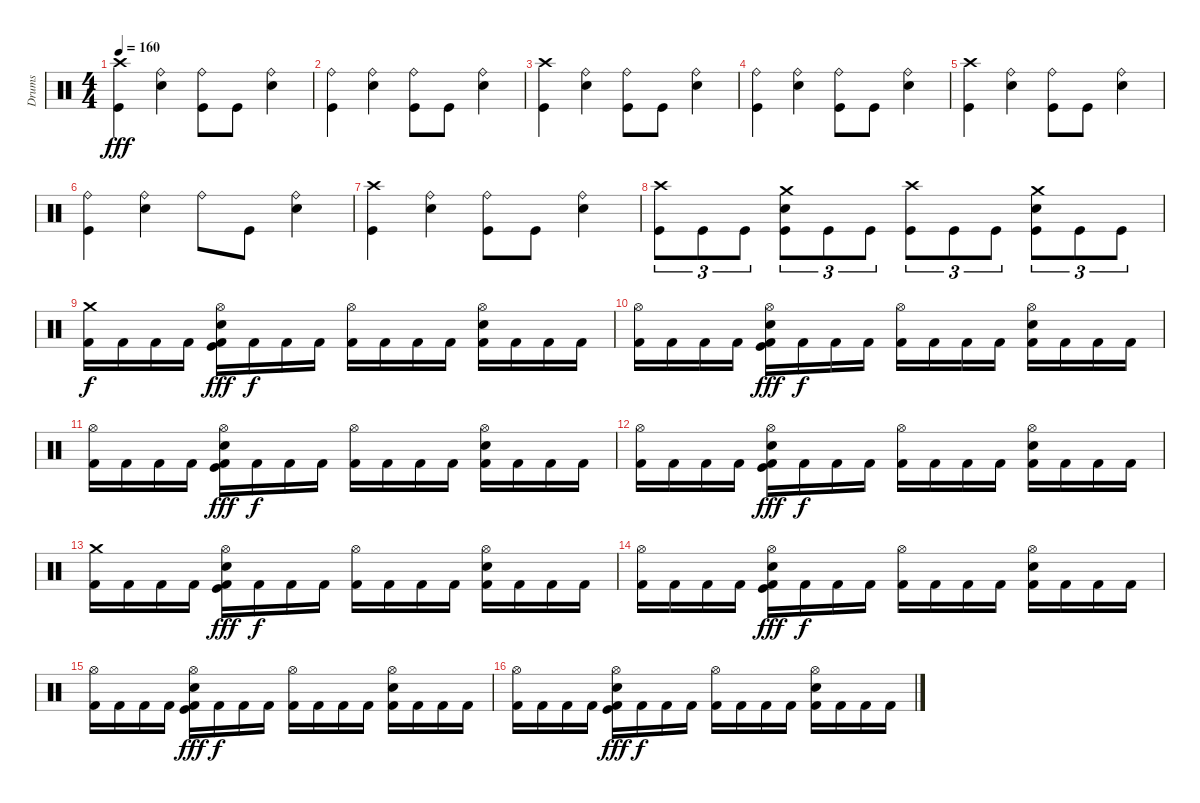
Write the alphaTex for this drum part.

\track ("Drums" "Drums") {instrument percussion}
\staff {score}
\articulation defaults
\ts (4 4)
\tempo 160
\clef neutral
\ks c
("Crash high (hit)" "Kick (hit)").4{dy fff} ("Ride (bell)" "Snare (hit) 2").4 ("Ride (bell)" "Kick (hit)").8 "Kick (hit)".8 ("Ride (bell)" "Snare (hit) 2").4 |
("Ride (bell)" "Kick (hit)").4 ("Ride (bell)" "Snare (hit) 2").4 ("Ride (bell)" "Kick (hit)").8 "Kick (hit)".8 ("Ride (bell)" "Snare (hit) 2").4 |
("Crash high (hit)" "Kick (hit)").4 ("Ride (bell)" "Snare (hit) 2").4 ("Ride (bell)" "Kick (hit)").8 "Kick (hit)".8 ("Ride (bell)" "Snare (hit) 2").4 |
("Ride (bell)" "Kick (hit)").4 ("Ride (bell)" "Snare (hit) 2").4 ("Ride (bell)" "Kick (hit)").8 "Kick (hit)".8 ("Ride (bell)" "Snare (hit) 2").4 |
("Crash high (hit)" "Kick (hit)").4 ("Ride (bell)" "Snare (hit) 2").4 ("Ride (bell)" "Kick (hit)").8 "Kick (hit)".8 ("Ride (bell)" "Snare (hit) 2").4 |
("Ride (bell)" "Kick (hit)").4 ("Ride (bell)" "Snare (hit) 2").4 "Ride (bell)".8 "Kick (hit)".8 ("Ride (bell)" "Snare (hit) 2").4 |
("Crash high (hit)" "Kick (hit)").4 ("Ride (bell)" "Snare (hit) 2").4 ("Ride (bell)" "Kick (hit)").8 "Kick (hit)".8 ("Ride (bell)" "Snare (hit) 2").4 |
("Crash high (hit)" "Kick (hit)").8{tu (3 2)} "Kick (hit)".8{tu (3 2)} "Kick (hit)".8{tu (3 2)} ("Crash medium (hit)" "Snare (hit) 2" "Kick (hit)").8{tu (3 2)} "Kick (hit)".8{tu (3 2)} "Kick (hit)".8{tu (3 2)} ("Crash high (hit)" "Kick (hit)").8{tu (3 2)} "Kick (hit)".8{tu (3 2)} "Kick (hit)".8{tu (3 2)} ("Crash medium (hit)" "Snare (hit) 2" "Kick (hit)").8{tu (3 2)} "Kick (hit)".8{tu (3 2)} "Kick (hit)".8{tu (3 2)} |
("Kick (hit) 2" "Crash medium (hit)").16{dy f} "Kick (hit) 2".16 "Kick (hit) 2".16 "Kick (hit) 2".16 ("Kick (hit) 2" "Snare (hit) 2" "Kick (hit)" "Hi-Hat (open)").16{dy fff} "Kick (hit) 2".16{dy f} "Kick (hit) 2".16 "Kick (hit) 2".16 ("Kick (hit) 2" "Hi-Hat (open)").16 "Kick (hit) 2".16 "Kick (hit) 2".16 "Kick (hit) 2".16 ("Kick (hit) 2" "Snare (hit) 2" "Hi-Hat (open)").16 "Kick (hit) 2".16 "Kick (hit) 2".16 "Kick (hit) 2".16 |
("Kick (hit) 2" "Hi-Hat (open)").16 "Kick (hit) 2".16 "Kick (hit) 2".16 "Kick (hit) 2".16 ("Kick (hit) 2" "Snare (hit) 2" "Kick (hit)" "Hi-Hat (open)").16{dy fff} "Kick (hit) 2".16{dy f} "Kick (hit) 2".16 "Kick (hit) 2".16 ("Kick (hit) 2" "Hi-Hat (open)").16 "Kick (hit) 2".16 "Kick (hit) 2".16 "Kick (hit) 2".16 ("Kick (hit) 2" "Snare (hit) 2" "Hi-Hat (open)").16 "Kick (hit) 2".16 "Kick (hit) 2".16 "Kick (hit) 2".16 |
("Kick (hit) 2" "Hi-Hat (open)").16 "Kick (hit) 2".16 "Kick (hit) 2".16 "Kick (hit) 2".16 ("Kick (hit) 2" "Snare (hit) 2" "Kick (hit)" "Hi-Hat (open)").16{dy fff} "Kick (hit) 2".16{dy f} "Kick (hit) 2".16 "Kick (hit) 2".16 ("Kick (hit) 2" "Hi-Hat (open)").16 "Kick (hit) 2".16 "Kick (hit) 2".16 "Kick (hit) 2".16 ("Kick (hit) 2" "Snare (hit) 2" "Hi-Hat (open)").16 "Kick (hit) 2".16 "Kick (hit) 2".16 "Kick (hit) 2".16 |
("Kick (hit) 2" "Hi-Hat (open)").16 "Kick (hit) 2".16 "Kick (hit) 2".16 "Kick (hit) 2".16 ("Kick (hit) 2" "Snare (hit) 2" "Kick (hit)" "Hi-Hat (open)").16{dy fff} "Kick (hit) 2".16{dy f} "Kick (hit) 2".16 "Kick (hit) 2".16 ("Kick (hit) 2" "Hi-Hat (open)").16 "Kick (hit) 2".16 "Kick (hit) 2".16 "Kick (hit) 2".16 ("Kick (hit) 2" "Snare (hit) 2" "Hi-Hat (open)").16 "Kick (hit) 2".16 "Kick (hit) 2".16 "Kick (hit) 2".16 |
("Kick (hit) 2" "Crash medium (hit)").16 "Kick (hit) 2".16 "Kick (hit) 2".16 "Kick (hit) 2".16 ("Kick (hit) 2" "Snare (hit) 2" "Kick (hit)" "Hi-Hat (open)").16{dy fff} "Kick (hit) 2".16{dy f} "Kick (hit) 2".16 "Kick (hit) 2".16 ("Kick (hit) 2" "Hi-Hat (open)").16 "Kick (hit) 2".16 "Kick (hit) 2".16 "Kick (hit) 2".16 ("Kick (hit) 2" "Snare (hit) 2" "Hi-Hat (open)").16 "Kick (hit) 2".16 "Kick (hit) 2".16 "Kick (hit) 2".16 |
("Kick (hit) 2" "Hi-Hat (open)").16 "Kick (hit) 2".16 "Kick (hit) 2".16 "Kick (hit) 2".16 ("Kick (hit) 2" "Snare (hit) 2" "Kick (hit)" "Hi-Hat (open)").16{dy fff} "Kick (hit) 2".16{dy f} "Kick (hit) 2".16 "Kick (hit) 2".16 ("Kick (hit) 2" "Hi-Hat (open)").16 "Kick (hit) 2".16 "Kick (hit) 2".16 "Kick (hit) 2".16 ("Kick (hit) 2" "Snare (hit) 2" "Hi-Hat (open)").16 "Kick (hit) 2".16 "Kick (hit) 2".16 "Kick (hit) 2".16 |
("Kick (hit) 2" "Hi-Hat (open)").16 "Kick (hit) 2".16 "Kick (hit) 2".16 "Kick (hit) 2".16 ("Kick (hit) 2" "Snare (hit) 2" "Kick (hit)" "Hi-Hat (open)").16{dy fff} "Kick (hit) 2".16{dy f} "Kick (hit) 2".16 "Kick (hit) 2".16 ("Kick (hit) 2" "Hi-Hat (open)").16 "Kick (hit) 2".16 "Kick (hit) 2".16 "Kick (hit) 2".16 ("Kick (hit) 2" "Snare (hit) 2" "Hi-Hat (open)").16 "Kick (hit) 2".16 "Kick (hit) 2".16 "Kick (hit) 2".16 |
("Kick (hit) 2" "Hi-Hat (open)").16 "Kick (hit) 2".16 "Kick (hit) 2".16 "Kick (hit) 2".16 ("Kick (hit) 2" "Snare (hit) 2" "Kick (hit)" "Hi-Hat (open)").16{dy fff} "Kick (hit) 2".16{dy f} "Kick (hit) 2".16 "Kick (hit) 2".16 ("Kick (hit) 2" "Hi-Hat (open)").16 "Kick (hit) 2".16 "Kick (hit) 2".16 "Kick (hit) 2".16 ("Kick (hit) 2" "Snare (hit) 2" "Hi-Hat (open)").16 "Kick (hit) 2".16 "Kick (hit) 2".16 "Kick (hit) 2".16
